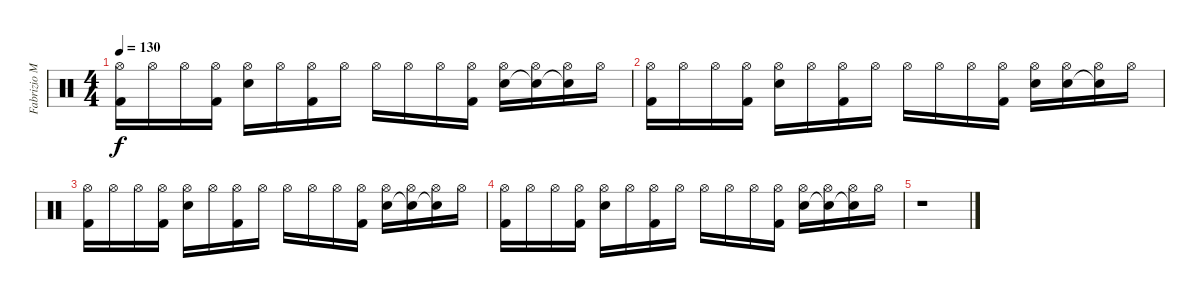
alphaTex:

\track ("Fabrizio Moretti" "Fabrizio M") {instrument percussion bank 127}
\staff {score}
\articulation defaults
\ts (4 4)
\tempo 130
\clef neutral
\ks c
("Hi-Hat (open)" "Kick (hit) 2").16{dy f} "Hi-Hat (open)".16 "Hi-Hat (open)".16 ("Hi-Hat (open)" "Kick (hit) 2").16 ("Hi-Hat (open)" "Electric Snare (hit)").16 "Hi-Hat (open)".16 ("Hi-Hat (open)" "Kick (hit) 2").16 "Hi-Hat (open)".16 "Hi-Hat (open)".16 "Hi-Hat (open)".16 "Hi-Hat (open)".16 ("Hi-Hat (open)" "Kick (hit) 2").16 ("Hi-Hat (open)" "Electric Snare (hit)").16 ("Hi-Hat (open)" "Electric Snare (hit)"{t}).16 ("Hi-Hat (open)" "Electric Snare (hit)"{t}).16 "Hi-Hat (open)".16 |
("Hi-Hat (open)" "Kick (hit) 2").16 "Hi-Hat (open)".16 "Hi-Hat (open)".16 ("Hi-Hat (open)" "Kick (hit) 2").16 ("Hi-Hat (open)" "Electric Snare (hit)").16 "Hi-Hat (open)".16 ("Hi-Hat (open)" "Kick (hit) 2").16 "Hi-Hat (open)".16 "Hi-Hat (open)".16 "Hi-Hat (open)".16 "Hi-Hat (open)".16 ("Hi-Hat (open)" "Kick (hit) 2").16 ("Hi-Hat (open)" "Electric Snare (hit)").16 ("Hi-Hat (open)" "Electric Snare (hit)").16 ("Hi-Hat (open)" "Electric Snare (hit)"{t}).16 "Hi-Hat (open)".16 |
("Hi-Hat (open)" "Kick (hit) 2").16 "Hi-Hat (open)".16 "Hi-Hat (open)".16 ("Hi-Hat (open)" "Kick (hit) 2").16 ("Hi-Hat (open)" "Electric Snare (hit)").16 "Hi-Hat (open)".16 ("Hi-Hat (open)" "Kick (hit) 2").16 "Hi-Hat (open)".16 "Hi-Hat (open)".16 "Hi-Hat (open)".16 "Hi-Hat (open)".16 ("Hi-Hat (open)" "Kick (hit) 2").16 ("Hi-Hat (open)" "Electric Snare (hit)").16 ("Hi-Hat (open)" "Electric Snare (hit)"{t}).16 ("Hi-Hat (open)" "Electric Snare (hit)"{t}).16 "Hi-Hat (open)".16 |
("Hi-Hat (open)" "Kick (hit) 2").16 "Hi-Hat (open)".16 "Hi-Hat (open)".16 ("Hi-Hat (open)" "Kick (hit) 2").16 ("Hi-Hat (open)" "Electric Snare (hit)").16 "Hi-Hat (open)".16 ("Hi-Hat (open)" "Kick (hit) 2").16 "Hi-Hat (open)".16 "Hi-Hat (open)".16 "Hi-Hat (open)".16 "Hi-Hat (open)".16 ("Hi-Hat (open)" "Kick (hit) 2").16 ("Hi-Hat (open)" "Electric Snare (hit)").16 ("Hi-Hat (open)" "Electric Snare (hit)"{t}).16 ("Hi-Hat (open)" "Electric Snare (hit)"{t}).16 "Hi-Hat (open)".16 |
r.1{volume 0}
